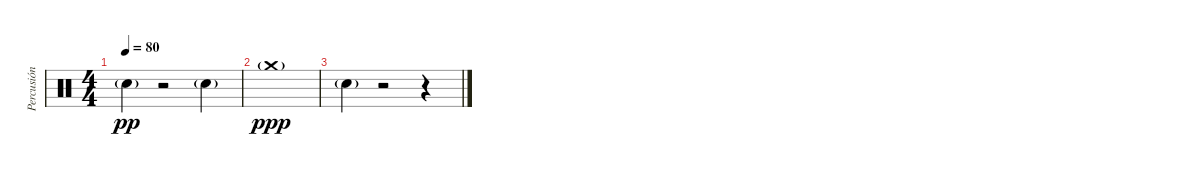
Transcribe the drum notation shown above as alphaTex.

\track ("Percusión" "Percusión") {instrument percussion}
\staff {score}
\articulation defaults
\ts (4 4)
\tempo 80
\clef neutral
\ks c "Snare (hit) 2"{tr (38 32) g}.4{dy pp}
r.2 "Snare (hit) 2"{tr (38 32) g}.4 |
"Crash medium (hit)"{g}.1{dy ppp} |
"Snare (hit) 2"{tr (38 32) g}.4 r.2 r.4
